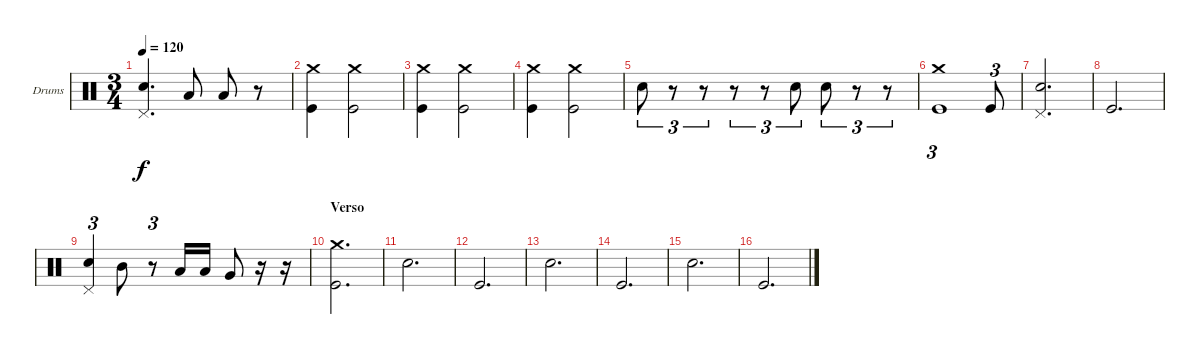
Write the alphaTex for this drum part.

\bracketExtendMode groupsimilarinstruments
\firstSystemTrackNameOrientation horizontal
\otherSystemsTrackNameOrientation horizontal
\track ("Drumkit" "Drums") {instrument percussion}
\staff {score}
\articulation defaults
\ts (3 4)
\tempo 120
\clef neutral
\ks c
("Snare (hit) 2" "Pedal Hi-Hat (hit)").4{d dy f} "Low Tom (hit)".8 "Low Tom (hit)".8 r.8 |
("Crash medium (hit)" "Kick (hit)").4 ("Crash medium (hit)" "Kick (hit)").2 |
("Crash medium (hit)" "Kick (hit)").4 ("Crash medium (hit)" "Kick (hit)").2 |
("Crash medium (hit)" "Kick (hit)").4 ("Crash medium (hit)" "Kick (hit)").2 |
"Snare (hit) 2".8{tu (3 2)} r.8{tu (3 2)} r.8{tu (3 2)} r.8{tu (3 2)} r.8{tu (3 2)} "Snare (hit) 2".8{tu (3 2)} "Snare (hit) 2".8{tu (3 2)} r.8{tu (3 2)} r.8{tu (3 2)} |
("Crash medium (hit)" "Kick (hit)").1{tu (3 2)} "Kick (hit)".8{tu (3 2)} |
("Snare (hit) 2" "Pedal Hi-Hat (hit)").2{d} |
"Kick (hit)".2{d} |
("Snare (hit) 2" "Pedal Hi-Hat (hit)").4{tu (3 2)} "Mid Tom (hit)".8 r.8{tu (3 2)} "Low Tom (hit)".16 "Low Tom (hit)".16 "Very Low Tom (hit)".8 r.16 r.16 |
\section ("" "Verso")
("Crash medium (hit)" "Kick (hit)").2{d} |
"Snare (hit) 2".2{d} |
"Kick (hit)".2{d} |
"Snare (hit) 2".2{d} |
"Kick (hit)".2{d} |
"Snare (hit) 2".2{d} |
"Kick (hit)".2{d}
